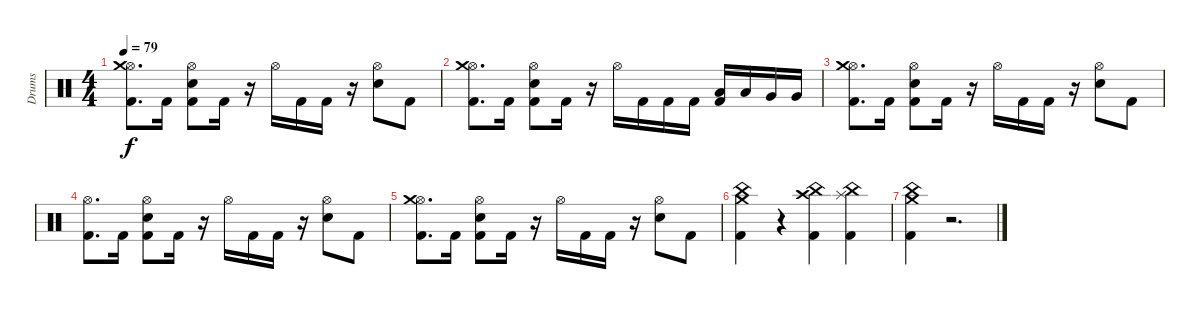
\track ("Drums" "Drums") {instrument percussion}
\staff {score}
\articulation defaults
\ts (4 4)
\tempo 79
\clef neutral
\ks c
("Hi-Hat (open)" "Crash medium (hit)" "Kick (hit) 2").8{d dy f} "Kick (hit) 2".16 ("Hi-Hat (open)" "Electric Snare (hit)" "Kick (hit) 2").8 "Kick (hit) 2".16 r.16 "Hi-Hat (open)".16 "Kick (hit) 2".16 "Kick (hit) 2".16 r.16 ("Hi-Hat (open)" "Electric Snare (hit)").8 "Kick (hit) 2".8 |
("Hi-Hat (open)" "Crash medium (hit)" "Kick (hit) 2").8{d} "Kick (hit) 2".16 ("Hi-Hat (open)" "Electric Snare (hit)" "Kick (hit) 2").8 "Kick (hit) 2".16 r.16 "Hi-Hat (open)".16 "Kick (hit) 2".16 "Kick (hit) 2".16 "Kick (hit) 2".16 ("Low Tom (hit)" "Kick (hit) 2").16 "Low Tom (hit)".16 "Very Low Tom (hit)".16 "Very Low Tom (hit)".16 |
("Hi-Hat (open)" "Crash medium (hit)" "Kick (hit) 2").8{d} "Kick (hit) 2".16 ("Hi-Hat (open)" "Electric Snare (hit)" "Kick (hit) 2").8 "Kick (hit) 2".16 r.16 "Hi-Hat (open)".16 "Kick (hit) 2".16 "Kick (hit) 2".16 r.16 ("Hi-Hat (open)" "Electric Snare (hit)").8 "Kick (hit) 2".8 |
("Hi-Hat (open)" "Kick (hit) 2").8{d} "Kick (hit) 2".16 ("Hi-Hat (open)" "Electric Snare (hit)" "Kick (hit) 2").8 "Kick (hit) 2".16 r.16 "Hi-Hat (open)".16 "Kick (hit) 2".16 "Kick (hit) 2".16 r.16 ("Hi-Hat (open)" "Electric Snare (hit)").8 "Kick (hit) 2".8 |
("Hi-Hat (open)" "Crash medium (hit)" "Kick (hit) 2").8{d} "Kick (hit) 2".16 ("Hi-Hat (open)" "Electric Snare (hit)" "Kick (hit) 2").8 "Kick (hit) 2".16 r.16 "Hi-Hat (open)".16 "Kick (hit) 2".16 "Kick (hit) 2".16 r.16 ("Hi-Hat (open)" "Electric Snare (hit)").8 "Kick (hit) 2".8 |
("China (hit)" "Crash medium (hit)" "Kick (hit) 2").4 r.4 ("China (hit)" "Crash high (hit)" "Kick (hit) 2").4 ("China (hit)" "Splash (hit)" "Kick (hit) 2").4 |
("China (hit)" "Crash medium (hit)" "Kick (hit) 2").4 r.2{d}
